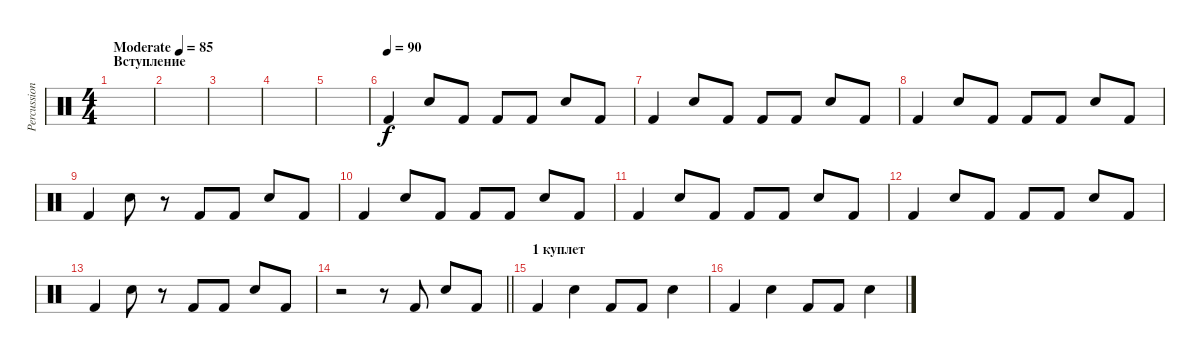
\track ("Percussion" "Percussion") {instrument percussion}
\staff {score}
\articulation defaults
\ts (4 4)
\section ("" "Вступление")
\tempo (85 "Moderate")
\clef neutral
\ks c
|
|
|
|
|
\tempo (90)
"Kick (hit) 2".4 "Snare (hit) 2".8 "Kick (hit) 2".8 "Kick (hit) 2".8 "Kick (hit) 2".8 "Snare (hit) 2".8 "Kick (hit) 2".8 |
"Kick (hit) 2".4 "Snare (hit) 2".8 "Kick (hit) 2".8 "Kick (hit) 2".8 "Kick (hit) 2".8 "Snare (hit) 2".8 "Kick (hit) 2".8 |
"Kick (hit) 2".4 "Snare (hit) 2".8 "Kick (hit) 2".8 "Kick (hit) 2".8 "Kick (hit) 2".8 "Snare (hit) 2".8 "Kick (hit) 2".8 |
"Kick (hit) 2".4 "Snare (hit) 2".8 r.8 "Kick (hit) 2".8 "Kick (hit) 2".8 "Snare (hit) 2".8 "Kick (hit) 2".8 |
"Kick (hit) 2".4 "Snare (hit) 2".8 "Kick (hit) 2".8 "Kick (hit) 2".8 "Kick (hit) 2".8 "Snare (hit) 2".8 "Kick (hit) 2".8 |
"Kick (hit) 2".4 "Snare (hit) 2".8 "Kick (hit) 2".8 "Kick (hit) 2".8 "Kick (hit) 2".8 "Snare (hit) 2".8 "Kick (hit) 2".8 |
"Kick (hit) 2".4 "Snare (hit) 2".8 "Kick (hit) 2".8 "Kick (hit) 2".8 "Kick (hit) 2".8 "Snare (hit) 2".8 "Kick (hit) 2".8 |
"Kick (hit) 2".4 "Snare (hit) 2".8 r.8 "Kick (hit) 2".8 "Kick (hit) 2".8 "Snare (hit) 2".8 "Kick (hit) 2".8 |
\barLineRight lightlight
r.2 r.8 "Kick (hit) 2".8 "Snare (hit) 2".8 "Kick (hit) 2".8 |
\section ("" "1 куплет")
"Kick (hit) 2".4 "Snare (hit) 2".4 "Kick (hit) 2".8 "Kick (hit) 2".8 "Snare (hit) 2".4 |
"Kick (hit) 2".4 "Snare (hit) 2".4 "Kick (hit) 2".8 "Kick (hit) 2".8 "Snare (hit) 2".4
